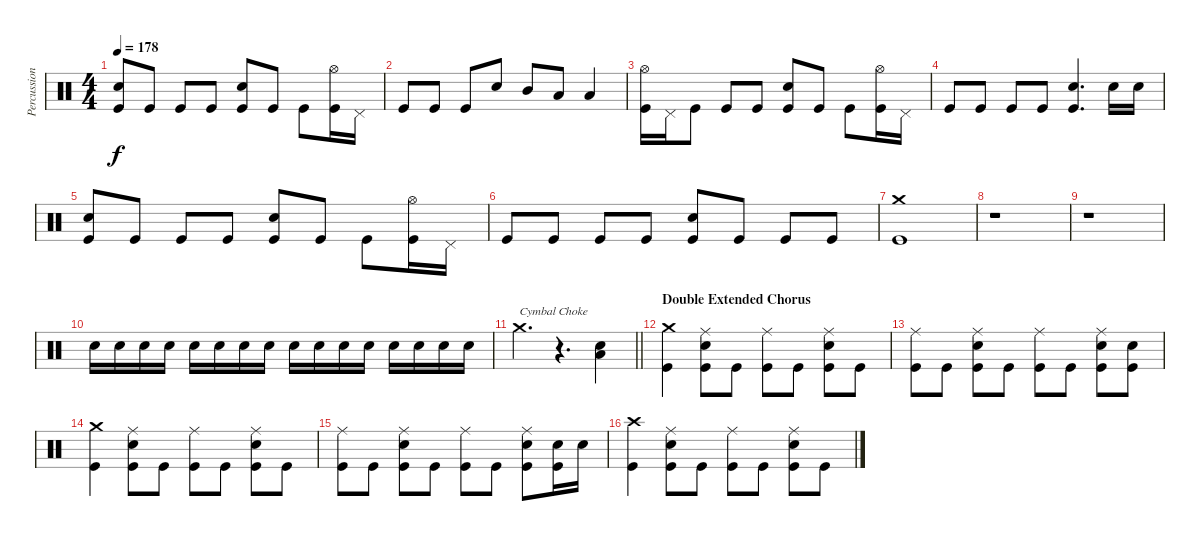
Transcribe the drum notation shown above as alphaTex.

\track ("Percussion" "Percussion") {instrument percussion}
\staff {score}
\articulation defaults
\ts (4 4)
\tempo 178
\clef neutral
\ks c
("Electric Snare (hit)" "Kick (hit)").8{dy f} "Kick (hit)".8 "Kick (hit)".8 "Kick (hit)".8 ("Electric Snare (hit)" "Kick (hit)").8 "Kick (hit)".8 "Kick (hit)".8 ("Hi-Hat (open)" "Kick (hit)").16 "Pedal Hi-Hat (hit)".16 |
"Kick (hit)".8 "Kick (hit)".8 "Kick (hit)".8 "Electric Snare (hit)".8 "Mid Tom (hit)".8 "Low Tom (hit)".8 "Low Floor Tom (hit)".4 |
("Hi-Hat (open)" "Kick (hit)").16 "Pedal Hi-Hat (hit)".16 "Kick (hit)".8 "Kick (hit)".8 "Kick (hit)".8 ("Electric Snare (hit)" "Kick (hit)").8 "Kick (hit)".8 "Kick (hit)".8 ("Hi-Hat (open)" "Kick (hit)").16 "Pedal Hi-Hat (hit)".16 |
"Kick (hit)".8 "Kick (hit)".8 "Kick (hit)".8 "Kick (hit)".8 ("Electric Snare (hit)" "Kick (hit)").4{d} "Electric Snare (hit)".16 "Electric Snare (hit)".16 |
("Electric Snare (hit)" "Kick (hit)").8 "Kick (hit)".8 "Kick (hit)".8 "Kick (hit)".8 ("Electric Snare (hit)" "Kick (hit)").8 "Kick (hit)".8 "Kick (hit)".8 ("Hi-Hat (open)" "Kick (hit)").16 "Pedal Hi-Hat (hit)".16 |
"Kick (hit)".8 "Kick (hit)".8 "Kick (hit)".8 "Kick (hit)".8 ("Electric Snare (hit)" "Kick (hit)").8 "Kick (hit)".8 "Kick (hit)".8 "Kick (hit)".8 |
("Crash medium (hit)" "Kick (hit)").1 |
r.1 |
r.1 |
"Electric Snare (hit)".16 "Electric Snare (hit)".16 "Electric Snare (hit)".16 "Electric Snare (hit)".16 "Electric Snare (hit)".16 "Electric Snare (hit)".16 "Electric Snare (hit)".16 "Electric Snare (hit)".16 "Electric Snare (hit)".16 "Electric Snare (hit)".16 "Electric Snare (hit)".16 "Electric Snare (hit)".16 "Electric Snare (hit)".16 "Electric Snare (hit)".16 "Electric Snare (hit)".16 "Electric Snare (hit)".16 |
\barLineRight lightlight "Crash medium (hit)".4{d txt "Cymbal Choke"}
r.4{d volume 0} ("Electric Snare (hit)" "Low Floor Tom (hit)").4{volume 13} |
\section ("" "Double Extended Chorus")
("Crash medium (hit)" "Kick (hit)").4 ("Ride (middle)" "Electric Snare (hit)" "Kick (hit)").8 "Kick (hit)".8 ("Ride (middle)" "Kick (hit)").8 "Kick (hit)".8 ("Ride (middle)" "Electric Snare (hit)" "Kick (hit)").8 "Kick (hit)".8 |
("Ride (middle)" "Kick (hit)").8 "Kick (hit)".8 ("Ride (middle)" "Electric Snare (hit)" "Kick (hit)").8 "Kick (hit)".8 ("Ride (middle)" "Kick (hit)").8 "Kick (hit)".8 ("Ride (middle)" "Electric Snare (hit)" "Kick (hit)").8 ("Electric Snare (hit)" "Kick (hit)").8 |
("Crash medium (hit)" "Kick (hit)").4 ("Ride (middle)" "Electric Snare (hit)" "Kick (hit)").8 "Kick (hit)".8 ("Ride (middle)" "Kick (hit)").8 "Kick (hit)".8 ("Ride (middle)" "Electric Snare (hit)" "Kick (hit)").8 "Kick (hit)".8 |
("Ride (middle)" "Kick (hit)").8 "Kick (hit)".8 ("Ride (middle)" "Electric Snare (hit)" "Kick (hit)").8 "Kick (hit)".8 ("Ride (middle)" "Kick (hit)").8 "Kick (hit)".8 ("Ride (middle)" "Electric Snare (hit)" "Kick (hit)").8 ("Electric Snare (hit)" "Kick (hit)").16 "Electric Snare (hit)".16 |
("Crash high (hit)" "Kick (hit)").4 ("Ride (middle)" "Electric Snare (hit)" "Kick (hit)").8 "Kick (hit)".8 ("Ride (middle)" "Kick (hit)").8 "Kick (hit)".8 ("Ride (middle)" "Electric Snare (hit)" "Kick (hit)").8 "Kick (hit)".8
